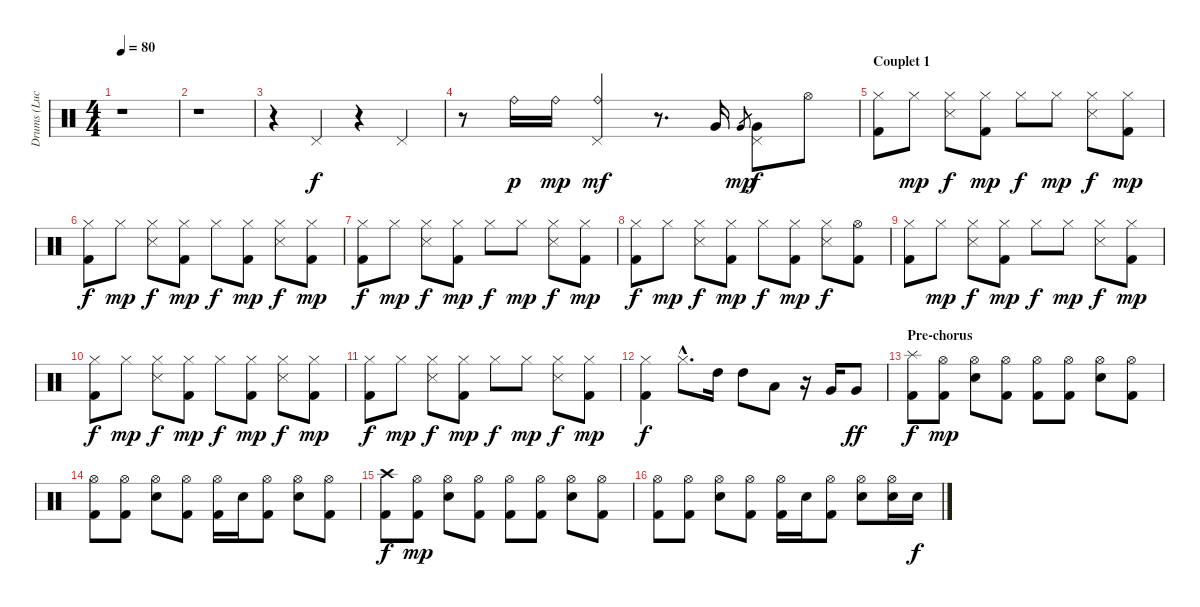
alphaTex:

\track ("Drums (Luc)" "Drums (Luc") {instrument percussion}
\staff {score}
\articulation defaults
\ts (4 4)
\tempo 80
\clef neutral
\ks c
r.1{dy f} |
r.1 |
r.4 "Pedal Hi-Hat (hit)".4 r.4 "Pedal Hi-Hat (hit)".4 |
r.8 "Ride (bell)".16{dy p} "Ride (bell)".16{dy mp} ("Ride (bell)" "Pedal Hi-Hat (hit)").4{dy mf} r.8{d} "Very Low Tom (hit)".16 "Very Low Tom (hit)".8{gr dy mp} ("Very Low Tom (hit)" "Pedal Hi-Hat (hit)").8{dy f} "Hi-Hat (open)".8 |
\section ("" "Couplet 1")
("Hi-Hat (closed)" "Kick (hit) 2").8 "Hi-Hat (closed)".8{dy mp} ("Hi-Hat (closed)" "Snare (side stick) 3").8{dy f} ("Hi-Hat (closed)" "Kick (hit) 2").8{dy mp} "Hi-Hat (closed)".8{dy f} "Hi-Hat (closed)".8{dy mp} ("Hi-Hat (closed)" "Snare (side stick) 3").8{dy f} ("Hi-Hat (closed)" "Kick (hit) 2").8{dy mp} |
("Hi-Hat (closed)" "Kick (hit) 2").8{dy f} "Hi-Hat (closed)".8{dy mp} ("Hi-Hat (closed)" "Snare (side stick) 3").8{dy f} ("Hi-Hat (closed)" "Kick (hit) 2").8{dy mp} "Hi-Hat (closed)".8{dy f} ("Hi-Hat (closed)" "Kick (hit) 2").8{dy mp} ("Hi-Hat (closed)" "Snare (side stick) 3").8{dy f} ("Hi-Hat (closed)" "Kick (hit) 2").8{dy mp} |
("Hi-Hat (closed)" "Kick (hit) 2").8{dy f} "Hi-Hat (closed)".8{dy mp} ("Hi-Hat (closed)" "Snare (side stick) 3").8{dy f} ("Hi-Hat (closed)" "Kick (hit) 2").8{dy mp} "Hi-Hat (closed)".8{dy f} "Hi-Hat (closed)".8{dy mp} ("Hi-Hat (closed)" "Snare (side stick) 3").8{dy f} ("Hi-Hat (closed)" "Kick (hit) 2").8{dy mp} |
("Hi-Hat (closed)" "Kick (hit) 2").8{dy f} "Hi-Hat (closed)".8{dy mp} ("Hi-Hat (closed)" "Snare (side stick) 3").8{dy f} ("Hi-Hat (closed)" "Kick (hit) 2").8{dy mp} "Hi-Hat (closed)".8{dy f} ("Hi-Hat (closed)" "Kick (hit) 2").8{dy mp} ("Hi-Hat (closed)" "Snare (side stick) 3").8{dy f} ("Hi-Hat (open)" "Kick (hit) 2").8 |
("Hi-Hat (closed)" "Kick (hit) 2").8 "Hi-Hat (closed)".8{dy mp} ("Hi-Hat (closed)" "Snare (side stick) 3").8{dy f} ("Hi-Hat (closed)" "Kick (hit) 2").8{dy mp} "Hi-Hat (closed)".8{dy f} "Hi-Hat (closed)".8{dy mp} ("Hi-Hat (closed)" "Snare (side stick) 3").8{dy f} ("Hi-Hat (closed)" "Kick (hit) 2").8{dy mp} |
("Hi-Hat (closed)" "Kick (hit) 2").8{dy f} "Hi-Hat (closed)".8{dy mp} ("Hi-Hat (closed)" "Snare (side stick) 3").8{dy f} ("Hi-Hat (closed)" "Kick (hit) 2").8{dy mp} "Hi-Hat (closed)".8{dy f} ("Hi-Hat (closed)" "Kick (hit) 2").8{dy mp} ("Hi-Hat (closed)" "Snare (side stick) 3").8{dy f} ("Hi-Hat (closed)" "Kick (hit) 2").8{dy mp} |
("Hi-Hat (closed)" "Kick (hit) 2").8{dy f} "Hi-Hat (closed)".8{dy mp} ("Hi-Hat (closed)" "Snare (side stick) 3").8{dy f} ("Hi-Hat (closed)" "Kick (hit) 2").8{dy mp} "Hi-Hat (closed)".8{dy f} "Hi-Hat (closed)".8{dy mp} ("Hi-Hat (closed)" "Snare (side stick) 3").8{dy f} ("Hi-Hat (closed)" "Kick (hit) 2").8{dy mp} |
("Hi-Hat (closed)" "Kick (hit) 2").4{dy f} "Hi-Hat (closed)"{hac}.8{d} "High Tom (hit)".16 "High Tom (hit)".8 "Low Tom (hit)".8 r.16 "Very Low Tom (hit)".16 "Very Low Tom (hit)".8{dy ff} |
\section ("" "Pre-chorus")
("Splash (hit)" "Kick (hit) 2").8{dy f} ("Hi-Hat (open)" "Kick (hit) 2").8{dy mp} ("Hi-Hat (open)" "Snare (hit) 2").8 ("Hi-Hat (open)" "Kick (hit) 2").8 ("Hi-Hat (open)" "Kick (hit) 2").8 ("Hi-Hat (open)" "Kick (hit) 2").8 ("Hi-Hat (open)" "Snare (hit) 2").8 ("Hi-Hat (open)" "Kick (hit) 2").8 |
("Hi-Hat (open)" "Kick (hit) 2").8 ("Hi-Hat (open)" "Kick (hit) 2").8 ("Hi-Hat (open)" "Snare (hit) 2").8 ("Hi-Hat (open)" "Kick (hit) 2").8 ("Hi-Hat (open)" "Kick (hit) 2").16 "Snare (hit) 2".16 ("Hi-Hat (open)" "Kick (hit) 2").8 ("Hi-Hat (open)" "Snare (hit) 2").8 ("Hi-Hat (open)" "Kick (hit) 2").8 |
("Crash high (hit)" "Kick (hit) 2").8{dy f} ("Hi-Hat (open)" "Kick (hit) 2").8{dy mp} ("Hi-Hat (open)" "Snare (hit) 2").8 ("Hi-Hat (open)" "Kick (hit) 2").8 ("Hi-Hat (open)" "Kick (hit) 2").8 ("Hi-Hat (open)" "Kick (hit) 2").8 ("Hi-Hat (open)" "Snare (hit) 2").8 ("Hi-Hat (open)" "Kick (hit) 2").8 |
("Hi-Hat (open)" "Kick (hit) 2").8 ("Hi-Hat (open)" "Kick (hit) 2").8 ("Hi-Hat (open)" "Snare (hit) 2").8 ("Hi-Hat (open)" "Kick (hit) 2").8 ("Hi-Hat (open)" "Kick (hit) 2").16 "Snare (hit) 2".16 ("Hi-Hat (open)" "Kick (hit) 2").8 ("Hi-Hat (open)" "Snare (hit) 2").8 ("Hi-Hat (open)" "Snare (hit) 2").16 "Snare (hit) 2".16{dy f}
